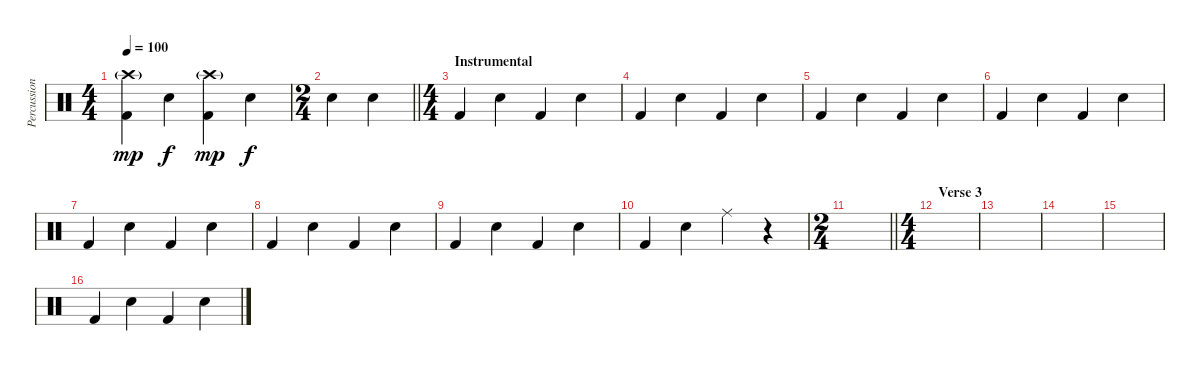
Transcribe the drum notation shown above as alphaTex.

\track ("Percussion" "Percussion") {instrument percussion}
\staff {score}
\articulation defaults
\ts (4 4)
\tempo 100
\clef neutral
\ks c
("Crash high (hit)"{g} "Kick (hit) 2").4{dy mp} "Snare (hit) 2".4{dy f} ("Crash high (hit)"{g} "Kick (hit) 2").4{dy mp} "Snare (hit) 2".4{dy f} |
\ts (2 4)
\barLineRight lightlight "Snare (hit) 2".4 "Snare (hit) 2".4
|
\ts (4 4)
\section ("" "Instrumental")
"Kick (hit) 2".4 "Snare (hit) 2".4 "Kick (hit) 2".4 "Snare (hit) 2".4 |
"Kick (hit) 2".4 "Snare (hit) 2".4 "Kick (hit) 2".4 "Snare (hit) 2".4 |
"Kick (hit) 2".4 "Snare (hit) 2".4 "Kick (hit) 2".4 "Snare (hit) 2".4 |
"Kick (hit) 2".4 "Snare (hit) 2".4 "Kick (hit) 2".4 "Snare (hit) 2".4 |
"Kick (hit) 2".4 "Snare (hit) 2".4 "Kick (hit) 2".4 "Snare (hit) 2".4 |
"Kick (hit) 2".4 "Snare (hit) 2".4 "Kick (hit) 2".4 "Snare (hit) 2".4 |
"Kick (hit) 2".4 "Snare (hit) 2".4 "Kick (hit) 2".4 "Snare (hit) 2".4 |
"Kick (hit) 2".4 "Snare (hit) 2".4 "Ride (middle)".4 r.4 |
\ts (2 4)
\barLineRight lightlight
|
\ts (4 4)
\section ("" "Verse 3")
|
|
|
|
"Kick (hit) 2".4 "Snare (hit) 2".4 "Kick (hit) 2".4 "Snare (hit) 2".4
